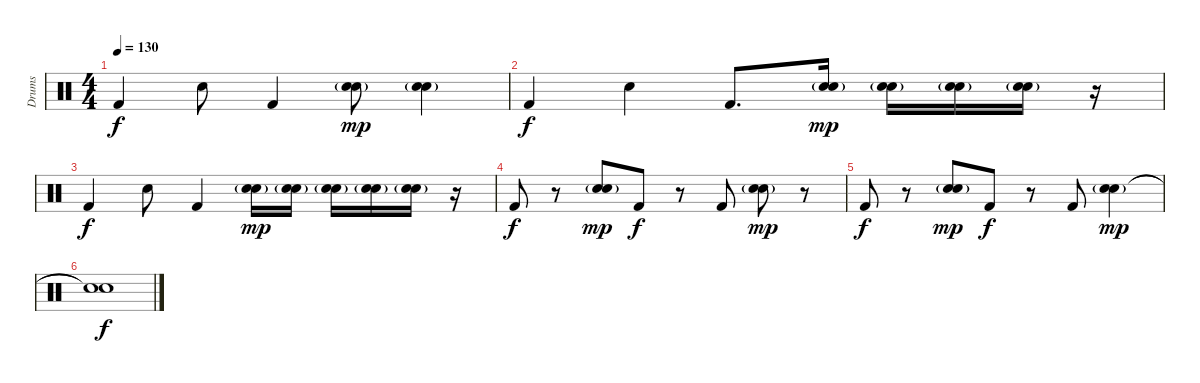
\track ("Drums" "Drums") {instrument percussion}
\staff {score}
\articulation defaults
\ts (4 4)
\tempo 130
\clef neutral
\ks c "Kick (hit) 2".4{dy f} "Electric Snare (hit)".8 "Kick (hit) 2".4
("Electric Snare (hit)" "Snare (hit) 2"{g}).8{dy mp} ("Electric Snare (hit)" "Snare (hit) 2"{g}).4 |
"Kick (hit) 2".4{dy f} "Electric Snare (hit)".4 "Kick (hit) 2".8{d} ("Electric Snare (hit)" "Snare (hit) 2"{g}).16{dy mp} ("Electric Snare (hit)" "Snare (hit) 2"{g}).16 ("Electric Snare (hit)" "Snare (hit) 2"{g}).16 ("Electric Snare (hit)" "Snare (hit) 2"{g}).16 r.16 |
"Kick (hit) 2".4{dy f} "Electric Snare (hit)".8 "Kick (hit) 2".4 ("Electric Snare (hit)" "Snare (hit) 2"{g}).16{dy mp} ("Electric Snare (hit)" "Snare (hit) 2"{g}).16 ("Electric Snare (hit)" "Snare (hit) 2"{g}).16 ("Electric Snare (hit)" "Snare (hit) 2"{g}).16 ("Electric Snare (hit)" "Snare (hit) 2"{g}).16 r.16 |
"Kick (hit) 2".8{dy f} r.8 ("Electric Snare (hit)" "Snare (hit) 2"{g}).8{dy mp} "Kick (hit) 2".8{dy f} r.8 "Kick (hit) 2".8 ("Electric Snare (hit)" "Snare (hit) 2"{g}).8{dy mp} r.8 |
"Kick (hit) 2".8{dy f} r.8 ("Electric Snare (hit)" "Snare (hit) 2"{g}).8{dy mp} "Kick (hit) 2".8{dy f} r.8 "Kick (hit) 2".8 ("Electric Snare (hit)" "Snare (hit) 2"{g}).4{dy mp} |
("Snare (hit)"{t} "Snare (hit)"{t}).1{dy f}
